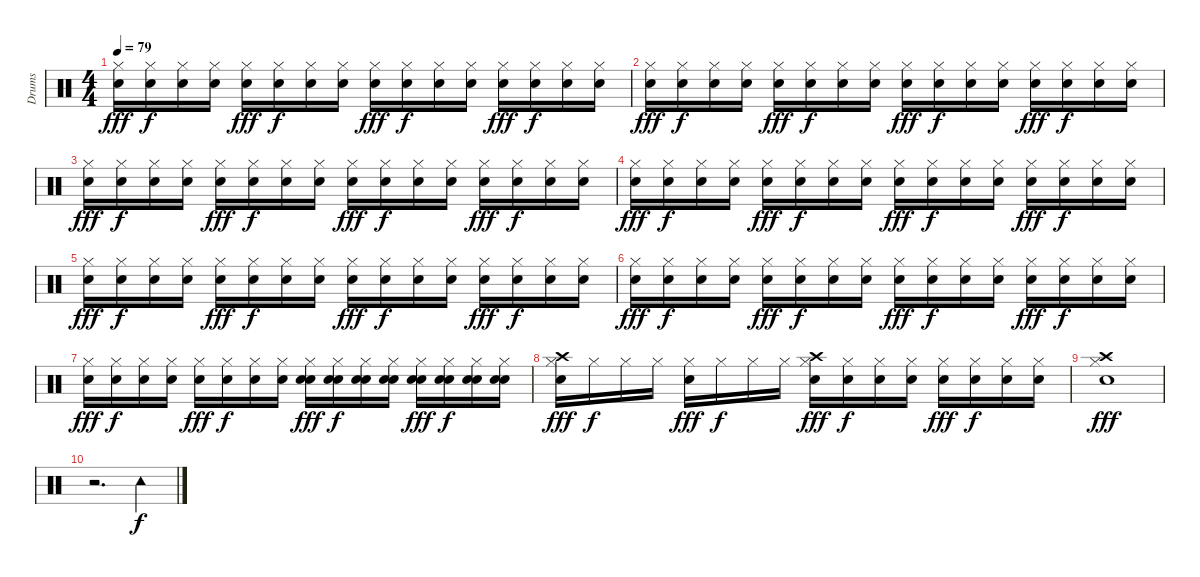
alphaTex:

\track ("Drums" "Drums") {instrument percussion}
\staff {score}
\articulation defaults
\ts (4 4)
\tempo 79
\clef neutral
\ks c
("Electric Snare (hit)" "Hi-Hat (closed)").16{dy fff} ("Hi-Hat (closed)" "Snare (hit) 2").16{dy f} ("Hi-Hat (closed)" "Snare (hit) 2").16 ("Hi-Hat (closed)" "Snare (hit) 2").16 ("Electric Snare (hit)" "Hi-Hat (closed)").16{dy fff} ("Hi-Hat (closed)" "Snare (hit) 2").16{dy f} ("Hi-Hat (closed)" "Snare (hit) 2").16 ("Hi-Hat (closed)" "Snare (hit) 2").16 ("Electric Snare (hit)" "Hi-Hat (closed)").16{dy fff} ("Hi-Hat (closed)" "Snare (hit) 2").16{dy f} ("Hi-Hat (closed)" "Snare (hit) 2").16 ("Hi-Hat (closed)" "Snare (hit) 2").16 ("Electric Snare (hit)" "Hi-Hat (closed)").16{dy fff} ("Hi-Hat (closed)" "Snare (hit) 2").16{dy f} ("Hi-Hat (closed)" "Snare (hit) 2").16 ("Hi-Hat (closed)" "Snare (hit) 2").16 |
("Electric Snare (hit)" "Hi-Hat (closed)").16{dy fff} ("Hi-Hat (closed)" "Snare (hit) 2").16{dy f} ("Hi-Hat (closed)" "Snare (hit) 2").16 ("Hi-Hat (closed)" "Snare (hit) 2").16 ("Electric Snare (hit)" "Hi-Hat (closed)").16{dy fff} ("Hi-Hat (closed)" "Snare (hit) 2").16{dy f} ("Hi-Hat (closed)" "Snare (hit) 2").16 ("Hi-Hat (closed)" "Snare (hit) 2").16 ("Electric Snare (hit)" "Hi-Hat (closed)").16{dy fff} ("Hi-Hat (closed)" "Snare (hit) 2").16{dy f} ("Hi-Hat (closed)" "Snare (hit) 2").16 ("Hi-Hat (closed)" "Snare (hit) 2").16 ("Electric Snare (hit)" "Hi-Hat (closed)").16{dy fff} ("Hi-Hat (closed)" "Snare (hit) 2").16{dy f} ("Hi-Hat (closed)" "Snare (hit) 2").16 ("Hi-Hat (closed)" "Snare (hit) 2").16 |
("Electric Snare (hit)" "Hi-Hat (closed)").16{dy fff} ("Hi-Hat (closed)" "Snare (hit) 2").16{dy f} ("Hi-Hat (closed)" "Snare (hit) 2").16 ("Hi-Hat (closed)" "Snare (hit) 2").16 ("Electric Snare (hit)" "Hi-Hat (closed)").16{dy fff} ("Hi-Hat (closed)" "Snare (hit) 2").16{dy f} ("Hi-Hat (closed)" "Snare (hit) 2").16 ("Hi-Hat (closed)" "Snare (hit) 2").16 ("Electric Snare (hit)" "Hi-Hat (closed)").16{dy fff} ("Hi-Hat (closed)" "Snare (hit) 2").16{dy f} ("Hi-Hat (closed)" "Snare (hit) 2").16 ("Hi-Hat (closed)" "Snare (hit) 2").16 ("Electric Snare (hit)" "Hi-Hat (closed)").16{dy fff} ("Hi-Hat (closed)" "Snare (hit) 2").16{dy f} ("Hi-Hat (closed)" "Snare (hit) 2").16 ("Hi-Hat (closed)" "Snare (hit) 2").16 |
("Electric Snare (hit)" "Hi-Hat (closed)").16{dy fff} ("Hi-Hat (closed)" "Snare (hit) 2").16{dy f} ("Hi-Hat (closed)" "Snare (hit) 2").16 ("Hi-Hat (closed)" "Snare (hit) 2").16 ("Electric Snare (hit)" "Hi-Hat (closed)").16{dy fff} ("Hi-Hat (closed)" "Snare (hit) 2").16{dy f} ("Hi-Hat (closed)" "Snare (hit) 2").16 ("Hi-Hat (closed)" "Snare (hit) 2").16 ("Electric Snare (hit)" "Hi-Hat (closed)").16{dy fff} ("Hi-Hat (closed)" "Snare (hit) 2").16{dy f} ("Hi-Hat (closed)" "Snare (hit) 2").16 ("Hi-Hat (closed)" "Snare (hit) 2").16 ("Electric Snare (hit)" "Hi-Hat (closed)").16{dy fff} ("Hi-Hat (closed)" "Snare (hit) 2").16{dy f} ("Hi-Hat (closed)" "Snare (hit) 2").16 ("Hi-Hat (closed)" "Snare (hit) 2").16 |
("Electric Snare (hit)" "Hi-Hat (closed)").16{dy fff} ("Hi-Hat (closed)" "Snare (hit) 2").16{dy f} ("Hi-Hat (closed)" "Snare (hit) 2").16 ("Hi-Hat (closed)" "Snare (hit) 2").16 ("Electric Snare (hit)" "Hi-Hat (closed)").16{dy fff} ("Hi-Hat (closed)" "Snare (hit) 2").16{dy f} ("Hi-Hat (closed)" "Snare (hit) 2").16 ("Hi-Hat (closed)" "Snare (hit) 2").16 ("Electric Snare (hit)" "Hi-Hat (closed)").16{dy fff} ("Hi-Hat (closed)" "Snare (hit) 2").16{dy f} ("Hi-Hat (closed)" "Snare (hit) 2").16 ("Hi-Hat (closed)" "Snare (hit) 2").16 ("Electric Snare (hit)" "Hi-Hat (closed)").16{dy fff} ("Hi-Hat (closed)" "Snare (hit) 2").16{dy f} ("Hi-Hat (closed)" "Snare (hit) 2").16 ("Hi-Hat (closed)" "Snare (hit) 2").16 |
("Electric Snare (hit)" "Hi-Hat (closed)").16{dy fff} ("Hi-Hat (closed)" "Snare (hit) 2").16{dy f} ("Hi-Hat (closed)" "Snare (hit) 2").16 ("Hi-Hat (closed)" "Snare (hit) 2").16 ("Electric Snare (hit)" "Hi-Hat (closed)").16{dy fff} ("Hi-Hat (closed)" "Snare (hit) 2").16{dy f} ("Hi-Hat (closed)" "Snare (hit) 2").16 ("Hi-Hat (closed)" "Snare (hit) 2").16 ("Electric Snare (hit)" "Hi-Hat (closed)").16{dy fff} ("Hi-Hat (closed)" "Snare (hit) 2").16{dy f} ("Hi-Hat (closed)" "Snare (hit) 2").16 ("Hi-Hat (closed)" "Snare (hit) 2").16 ("Electric Snare (hit)" "Hi-Hat (closed)").16{dy fff} ("Hi-Hat (closed)" "Snare (hit) 2").16{dy f} ("Hi-Hat (closed)" "Snare (hit) 2").16 ("Hi-Hat (closed)" "Snare (hit) 2").16 |
("Electric Snare (hit)" "Hi-Hat (closed)").16{dy fff} ("Hi-Hat (closed)" "Snare (hit) 2").16{dy f} ("Hi-Hat (closed)" "Snare (hit) 2").16 ("Hi-Hat (closed)" "Snare (hit) 2").16 ("Electric Snare (hit)" "Hi-Hat (closed)").16{dy fff} ("Hi-Hat (closed)" "Snare (hit) 2").16{dy f} ("Hi-Hat (closed)" "Snare (hit) 2").16 ("Hi-Hat (closed)" "Snare (hit) 2").16 ("Electric Snare (hit)" "Hi-Hat (closed)" "Electric Snare (hit)").16{dy fff} ("Hi-Hat (closed)" "Snare (hit) 2" "Electric Snare (hit)").16{dy f} ("Hi-Hat (closed)" "Snare (hit) 2" "Electric Snare (hit)").16 ("Hi-Hat (closed)" "Snare (hit) 2" "Electric Snare (hit)").16 ("Electric Snare (hit)" "Hi-Hat (closed)" "Electric Snare (hit)").16{dy fff} ("Hi-Hat (closed)" "Snare (hit) 2" "Electric Snare (hit)").16{dy f} ("Hi-Hat (closed)" "Snare (hit) 2" "Electric Snare (hit)").16 ("Hi-Hat (closed)" "Snare (hit) 2" "Electric Snare (hit)").16 |
("Electric Snare (hit)" "Hi-Hat (closed)" "Crash high (hit)").16{dy fff} "Hi-Hat (closed)".16{dy f} "Hi-Hat (closed)".16 "Hi-Hat (closed)".16 ("Electric Snare (hit)" "Hi-Hat (closed)").16{dy fff} "Hi-Hat (closed)".16{dy f} "Hi-Hat (closed)".16 "Hi-Hat (closed)".16 ("Electric Snare (hit)" "Hi-Hat (closed)" "Crash high (hit)").16{dy fff} ("Hi-Hat (closed)" "Snare (hit) 2").16{dy f} ("Hi-Hat (closed)" "Snare (hit) 2").16 ("Hi-Hat (closed)" "Snare (hit) 2").16 ("Electric Snare (hit)" "Hi-Hat (closed)").16{dy fff} ("Hi-Hat (closed)" "Snare (hit) 2").16{dy f} ("Hi-Hat (closed)" "Snare (hit) 2").16 ("Hi-Hat (closed)" "Snare (hit) 2").16 |
("Electric Snare (hit)" "Hi-Hat (closed)" "Crash high (hit)").1{dy fff} |
r.2{d} "Tambourine (hit)".4{dy f}
